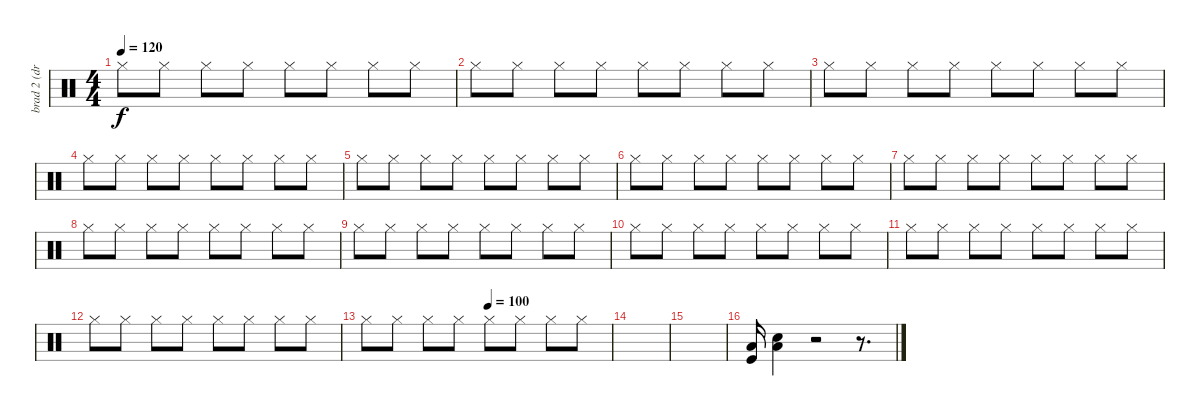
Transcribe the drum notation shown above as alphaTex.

\track ("brad 2 (drums hit hat)" "brad 2 (dr") {instrument percussion}
\staff {score}
\articulation defaults
\ts (4 4)
\tempo 120
\clef neutral
\ks c "Hi-Hat (closed)".8{dy f} "Hi-Hat (closed)".8 "Hi-Hat (closed)".8 "Hi-Hat (closed)".8 "Hi-Hat (closed)".8 "Hi-Hat (closed)".8 "Hi-Hat (closed)".8 "Hi-Hat (closed)".8
|
"Hi-Hat (closed)".8 "Hi-Hat (closed)".8 "Hi-Hat (closed)".8 "Hi-Hat (closed)".8 "Hi-Hat (closed)".8 "Hi-Hat (closed)".8 "Hi-Hat (closed)".8 "Hi-Hat (closed)".8 |
"Hi-Hat (closed)".8 "Hi-Hat (closed)".8 "Hi-Hat (closed)".8 "Hi-Hat (closed)".8 "Hi-Hat (closed)".8 "Hi-Hat (closed)".8 "Hi-Hat (closed)".8 "Hi-Hat (closed)".8 |
"Hi-Hat (closed)".8 "Hi-Hat (closed)".8 "Hi-Hat (closed)".8 "Hi-Hat (closed)".8 "Hi-Hat (closed)".8 "Hi-Hat (closed)".8 "Hi-Hat (closed)".8 "Hi-Hat (closed)".8 |
"Hi-Hat (closed)".8 "Hi-Hat (closed)".8 "Hi-Hat (closed)".8 "Hi-Hat (closed)".8 "Hi-Hat (closed)".8 "Hi-Hat (closed)".8 "Hi-Hat (closed)".8 "Hi-Hat (closed)".8 |
"Hi-Hat (closed)".8 "Hi-Hat (closed)".8 "Hi-Hat (closed)".8 "Hi-Hat (closed)".8 "Hi-Hat (closed)".8 "Hi-Hat (closed)".8 "Hi-Hat (closed)".8 "Hi-Hat (closed)".8 |
"Hi-Hat (closed)".8 "Hi-Hat (closed)".8 "Hi-Hat (closed)".8 "Hi-Hat (closed)".8 "Hi-Hat (closed)".8 "Hi-Hat (closed)".8 "Hi-Hat (closed)".8 "Hi-Hat (closed)".8 |
"Hi-Hat (closed)".8 "Hi-Hat (closed)".8 "Hi-Hat (closed)".8 "Hi-Hat (closed)".8 "Hi-Hat (closed)".8 "Hi-Hat (closed)".8 "Hi-Hat (closed)".8 "Hi-Hat (closed)".8 |
"Hi-Hat (closed)".8 "Hi-Hat (closed)".8 "Hi-Hat (closed)".8 "Hi-Hat (closed)".8 "Hi-Hat (closed)".8 "Hi-Hat (closed)".8 "Hi-Hat (closed)".8 "Hi-Hat (closed)".8 |
"Hi-Hat (closed)".8 "Hi-Hat (closed)".8 "Hi-Hat (closed)".8 "Hi-Hat (closed)".8 "Hi-Hat (closed)".8 "Hi-Hat (closed)".8 "Hi-Hat (closed)".8 "Hi-Hat (closed)".8 |
"Hi-Hat (closed)".8 "Hi-Hat (closed)".8 "Hi-Hat (closed)".8 "Hi-Hat (closed)".8 "Hi-Hat (closed)".8 "Hi-Hat (closed)".8 "Hi-Hat (closed)".8 "Hi-Hat (closed)".8 |
"Hi-Hat (closed)".8 "Hi-Hat (closed)".8 "Hi-Hat (closed)".8 "Hi-Hat (closed)".8 "Hi-Hat (closed)".8 "Hi-Hat (closed)".8 "Hi-Hat (closed)".8 "Hi-Hat (closed)".8 |
\tempo (100 0.5)
"Hi-Hat (closed)".8 "Hi-Hat (closed)".8 "Hi-Hat (closed)".8 "Hi-Hat (closed)".8 "Hi-Hat (closed)".8 "Hi-Hat (closed)".8 "Hi-Hat (closed)".8 "Hi-Hat (closed)".8 |
|
|
("Kick (hit)" "Low Floor Tom (hit)").16 ("Electric Snare (hit)" "Low Tom (hit)").4 r.2 r.8{d}
